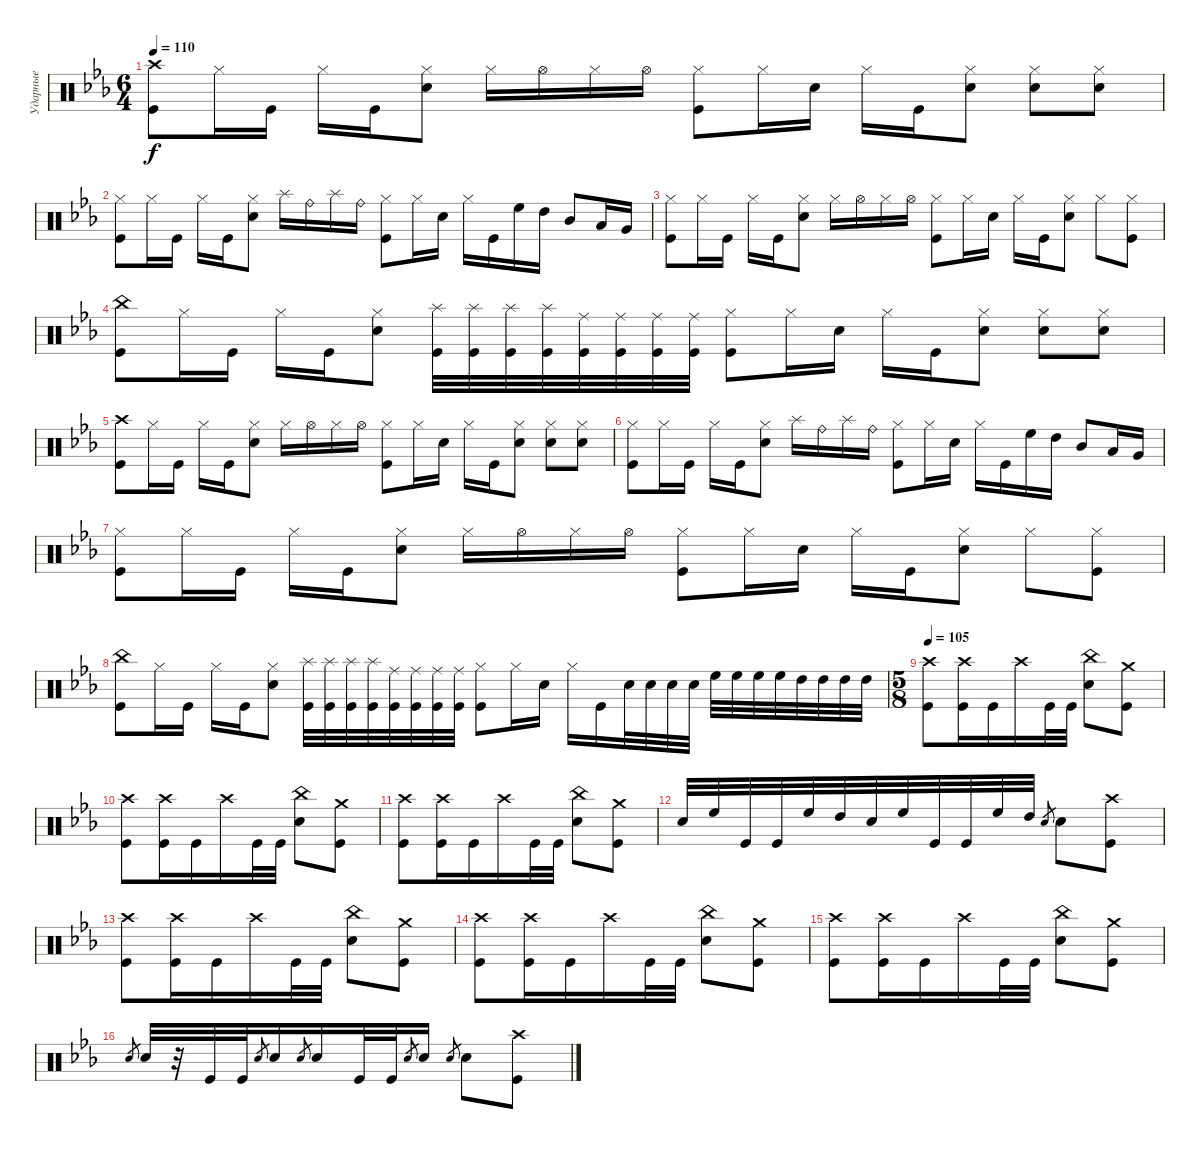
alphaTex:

\track ("Ударные" "Ударные") {instrument percussion}
\staff {score}
\articulation defaults
\ts (6 4)
\tempo 110
\clef neutral
\ks cminor
("Kick (hit)" "Crash high (hit)").8{dy f} "Hi-Hat (closed)".16 "Kick (hit)".16 "Hi-Hat (closed)".16 "Kick (hit)".16 ("Hi-Hat (closed)" "Snare (hit) 2").8 "Hi-Hat (closed)".16 "Hi-Hat (open)".16 "Hi-Hat (closed)".16 "Hi-Hat (open)".16 ("Kick (hit)" "Hi-Hat (closed)").8 "Hi-Hat (closed)".16 "Snare (hit) 2".16 "Hi-Hat (closed)".16 "Kick (hit)".16 ("Snare (hit) 2" "Hi-Hat (closed)").8 ("Hi-Hat (closed)" "Snare (hit) 2").8 ("Hi-Hat (closed)" "Snare (hit) 2").8 |
("Kick (hit)" "Hi-Hat (closed)").8 "Hi-Hat (closed)".16 "Kick (hit)".16 "Hi-Hat (closed)".16 "Kick (hit)".16 ("Hi-Hat (closed)" "Snare (hit) 2").8 "Splash (hit)".16 "Ride (bell)".16 "Splash (hit)".16 "Ride (bell)".16 ("Kick (hit)" "Hi-Hat (closed)").8 "Hi-Hat (closed)".16 "Snare (hit) 2".16 "Hi-Hat (closed)".16 "Kick (hit)".16 "High Floor Tom (hit)".16 "High Tom (hit)".16 "Mid Tom (hit)".8 "Low Tom (hit)".16 "Very Low Tom (hit)".16 |
("Kick (hit)" "Hi-Hat (closed)").8 "Hi-Hat (closed)".16 "Kick (hit)".16 "Hi-Hat (closed)".16 "Kick (hit)".16 ("Hi-Hat (closed)" "Snare (hit) 2").8 "Hi-Hat (closed)".16 "Hi-Hat (open)".16 "Hi-Hat (closed)".16 "Hi-Hat (open)".16 ("Kick (hit)" "Hi-Hat (closed)").8 "Hi-Hat (closed)".16 "Snare (hit) 2".16 "Hi-Hat (closed)".16 "Kick (hit)".16 ("Snare (hit) 2" "Hi-Hat (closed)").8 "Hi-Hat (closed)".8 ("Hi-Hat (closed)" "Kick (hit)").8 |
("Kick (hit)" "China (hit)").8 "Hi-Hat (closed)".16 "Kick (hit)".16 "Hi-Hat (closed)".16 "Kick (hit)".16 ("Hi-Hat (closed)" "Snare (hit) 2").8 ("Kick (hit)" "Splash (hit)").32 ("Kick (hit)" "Splash (hit)").32 ("Kick (hit)" "Splash (hit)").32 ("Kick (hit)" "Splash (hit)").32 ("Kick (hit)" "Ride (middle)").32 ("Kick (hit)" "Ride (middle)").32 ("Kick (hit)" "Ride (middle)").32 ("Kick (hit)" "Ride (middle)").32 ("Kick (hit)" "Hi-Hat (closed)").8 "Hi-Hat (closed)".16 "Snare (hit) 2".16 "Hi-Hat (closed)".16 "Kick (hit)".16 ("Snare (hit) 2" "Hi-Hat (closed)").8 ("Hi-Hat (closed)" "Snare (hit) 2").8 ("Hi-Hat (closed)" "Snare (hit) 2").8 |
("Kick (hit)" "Crash high (hit)").8 "Hi-Hat (closed)".16 "Kick (hit)".16 "Hi-Hat (closed)".16 "Kick (hit)".16 ("Hi-Hat (closed)" "Snare (hit) 2").8 "Hi-Hat (closed)".16 "Hi-Hat (open)".16 "Hi-Hat (closed)".16 "Hi-Hat (open)".16 ("Kick (hit)" "Hi-Hat (closed)").8 "Hi-Hat (closed)".16 "Snare (hit) 2".16 "Hi-Hat (closed)".16 "Kick (hit)".16 ("Snare (hit) 2" "Hi-Hat (closed)").8 ("Hi-Hat (closed)" "Snare (hit) 2").8 ("Hi-Hat (closed)" "Snare (hit) 2").8 |
("Kick (hit)" "Hi-Hat (closed)").8 "Hi-Hat (closed)".16 "Kick (hit)".16 "Hi-Hat (closed)".16 "Kick (hit)".16 ("Hi-Hat (closed)" "Snare (hit) 2").8 "Splash (hit)".16 "Ride (bell)".16 "Splash (hit)".16 "Ride (bell)".16 ("Kick (hit)" "Hi-Hat (closed)").8 "Hi-Hat (closed)".16 "Snare (hit) 2".16 "Hi-Hat (closed)".16 "Kick (hit)".16 "High Floor Tom (hit)".16 "High Tom (hit)".16 "Mid Tom (hit)".8 "Low Tom (hit)".16 "Very Low Tom (hit)".16 |
("Kick (hit)" "Hi-Hat (closed)").8 "Hi-Hat (closed)".16 "Kick (hit)".16 "Hi-Hat (closed)".16 "Kick (hit)".16 ("Hi-Hat (closed)" "Snare (hit) 2").8 "Hi-Hat (closed)".16 "Hi-Hat (open)".16 "Hi-Hat (closed)".16 "Hi-Hat (open)".16 ("Kick (hit)" "Hi-Hat (closed)").8 "Hi-Hat (closed)".16 "Snare (hit) 2".16 "Hi-Hat (closed)".16 "Kick (hit)".16 ("Snare (hit) 2" "Hi-Hat (closed)").8 "Hi-Hat (closed)".8 ("Hi-Hat (closed)" "Kick (hit)").8 |
("Kick (hit)" "China (hit)").8 "Hi-Hat (closed)".16 "Kick (hit)".16 "Hi-Hat (closed)".16 "Kick (hit)".16 ("Hi-Hat (closed)" "Snare (hit) 2").8 ("Kick (hit)" "Splash (hit)").32 ("Kick (hit)" "Splash (hit)").32 ("Kick (hit)" "Splash (hit)").32 ("Kick (hit)" "Splash (hit)").32 ("Kick (hit)" "Ride (middle)").32 ("Kick (hit)" "Ride (middle)").32 ("Kick (hit)" "Ride (middle)").32 ("Kick (hit)" "Ride (middle)").32 ("Kick (hit)" "Hi-Hat (closed)").8 "Hi-Hat (closed)".16 "Snare (hit) 2".16 "Hi-Hat (closed)".16 "Kick (hit)".16 "Snare (hit) 2".32 "Snare (hit) 2".32 "Snare (hit) 2".32 "Snare (hit) 2".32 "High Floor Tom (hit)".32 "High Floor Tom (hit)".32 "High Floor Tom (hit)".32 "High Floor Tom (hit)".32 "High Tom (hit)".32 "High Tom (hit)".32 "High Tom (hit)".32 "High Tom (hit)".32 |
\ts (5 8)
\tempo 105
("Kick (hit)" "Crash high (hit)").8 ("Kick (hit)" "Crash high (hit)").16 "Kick (hit)".16 "Crash high (hit)".16 "Kick (hit)".32 "Kick (hit)".32 ("Snare (hit) 2" "China (hit)").8 ("Kick (hit)" "Crash medium (hit)").8 |
("Kick (hit)" "Crash high (hit)").8 ("Kick (hit)" "Crash high (hit)").16 "Kick (hit)".16 "Crash high (hit)".16 "Kick (hit)".32 "Kick (hit)".32 ("Snare (hit) 2" "China (hit)").8 ("Kick (hit)" "Crash medium (hit)").8 |
("Kick (hit)" "Crash high (hit)").8 ("Kick (hit)" "Crash high (hit)").16 "Kick (hit)".16 "Crash high (hit)".16 "Kick (hit)".32 "Kick (hit)".32 ("Snare (hit) 2" "China (hit)").8 ("Kick (hit)" "Crash medium (hit)").8 |
"Snare (hit) 2".32 "High Floor Tom (hit)".32 "Kick (hit)".32 "Kick (hit)".32 "High Floor Tom (hit)".32 "High Tom (hit)".32 "Snare (hit) 2".32 "High Floor Tom (hit)".32 "Kick (hit)".32 "Kick (hit)".32 "High Floor Tom (hit)".32 "High Tom (hit)".32 "Snare (hit) 2".8{gr} "Snare (hit) 2".8 ("Kick (hit)" "Crash high (hit)").8 |
("Kick (hit)" "Crash high (hit)").8 ("Kick (hit)" "Crash high (hit)").16 "Kick (hit)".16 "Crash high (hit)".16 "Kick (hit)".32 "Kick (hit)".32 ("Snare (hit) 2" "China (hit)").8 ("Kick (hit)" "Crash medium (hit)").8 |
("Kick (hit)" "Crash high (hit)").8 ("Kick (hit)" "Crash high (hit)").16 "Kick (hit)".16 "Crash high (hit)".16 "Kick (hit)".32 "Kick (hit)".32 ("Snare (hit) 2" "China (hit)").8 ("Kick (hit)" "Crash medium (hit)").8 |
("Kick (hit)" "Crash high (hit)").8 ("Kick (hit)" "Crash high (hit)").16 "Kick (hit)".16 "Crash high (hit)".16 "Kick (hit)".32 "Kick (hit)".32 ("Snare (hit) 2" "China (hit)").8 ("Kick (hit)" "Crash medium (hit)").8 |
"Snare (hit) 2".8{gr} "Snare (hit) 2".32 r.32 "Kick (hit)".32 "Kick (hit)".32 "Snare (hit) 2".8{gr} "Snare (hit) 2".16 "Snare (hit) 2".8{gr} "Snare (hit) 2".16 "Kick (hit)".32 "Kick (hit)".32 "Snare (hit) 2".8{gr} "Snare (hit) 2".16 "Snare (hit) 2".8{gr} "Snare (hit) 2".8 ("Kick (hit)" "Crash high (hit)").8
